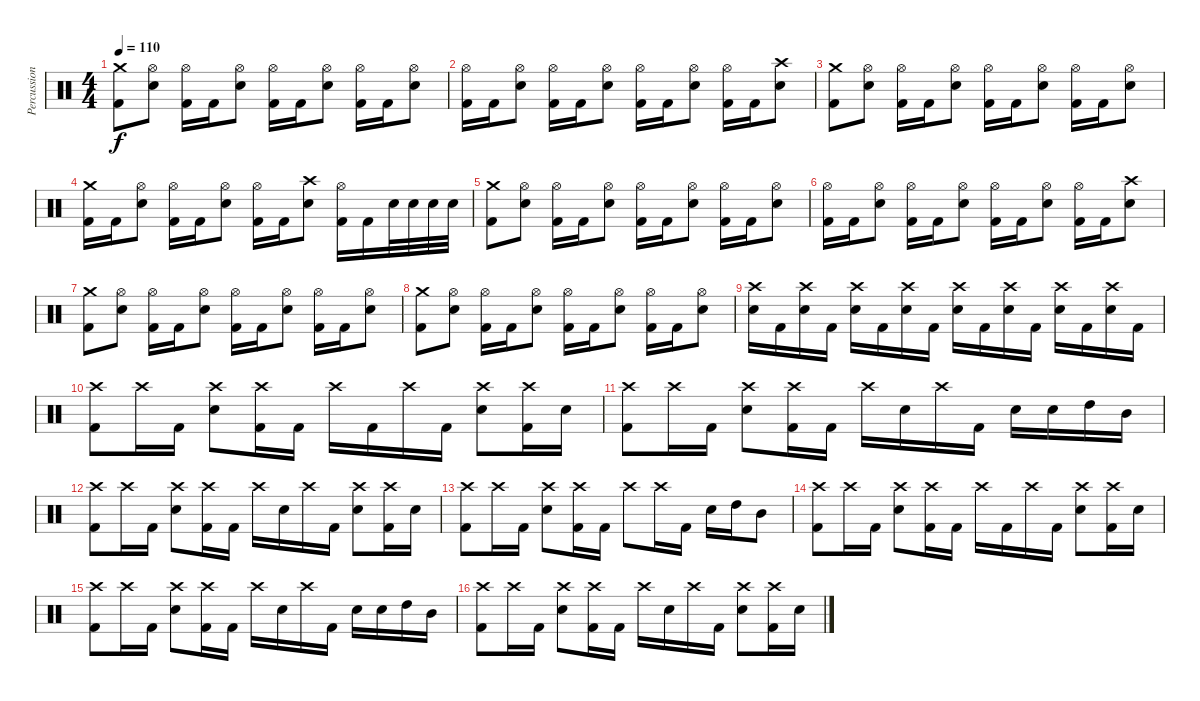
\track ("Percussion" "Percussion") {instrument percussion}
\staff {score}
\articulation defaults
\ts (4 4)
\tempo 110
\clef neutral
\ks c
("Crash medium (hit)" "Kick (hit) 2").8{dy f} ("Hi-Hat (open)" "Snare (hit) 2").8 ("Hi-Hat (open)" "Kick (hit) 2").16 "Kick (hit) 2".16 ("Hi-Hat (open)" "Snare (hit) 2").8 ("Hi-Hat (open)" "Kick (hit) 2").16 "Kick (hit) 2".16 ("Hi-Hat (open)" "Snare (hit) 2").8 ("Hi-Hat (open)" "Kick (hit) 2").16 "Kick (hit) 2".16 ("Hi-Hat (open)" "Snare (hit) 2").8 |
("Hi-Hat (open)" "Kick (hit) 2").16 "Kick (hit) 2".16 ("Hi-Hat (open)" "Snare (hit) 2").8 ("Hi-Hat (open)" "Kick (hit) 2").16 "Kick (hit) 2".16 ("Hi-Hat (open)" "Snare (hit) 2").8 ("Hi-Hat (open)" "Kick (hit) 2").16 "Kick (hit) 2".16 ("Hi-Hat (open)" "Snare (hit) 2").8 ("Hi-Hat (open)" "Kick (hit) 2").16 "Kick (hit) 2".16 ("Crash high (hit)" "Snare (hit) 2").8 |
("Crash medium (hit)" "Kick (hit) 2").8 ("Hi-Hat (open)" "Snare (hit) 2").8 ("Hi-Hat (open)" "Kick (hit) 2").16 "Kick (hit) 2".16 ("Hi-Hat (open)" "Snare (hit) 2").8 ("Hi-Hat (open)" "Kick (hit) 2").16 "Kick (hit) 2".16 ("Hi-Hat (open)" "Snare (hit) 2").8 ("Hi-Hat (open)" "Kick (hit) 2").16 "Kick (hit) 2".16 ("Hi-Hat (open)" "Snare (hit) 2").8 |
("Crash medium (hit)" "Kick (hit) 2").16 "Kick (hit) 2".16 ("Hi-Hat (open)" "Snare (hit) 2").8 ("Hi-Hat (open)" "Kick (hit) 2").16 "Kick (hit) 2".16 ("Hi-Hat (open)" "Snare (hit) 2").8 ("Hi-Hat (open)" "Kick (hit) 2").16 "Kick (hit) 2".16 ("Crash high (hit)" "Snare (hit) 2").8 ("Hi-Hat (open)" "Kick (hit) 2").16 "Kick (hit) 2".16 "Snare (hit) 2".32 "Snare (hit) 2".32 "Snare (hit) 2".32 "Snare (hit) 2".32 |
("Crash medium (hit)" "Kick (hit) 2").8 ("Hi-Hat (open)" "Snare (hit) 2").8 ("Hi-Hat (open)" "Kick (hit) 2").16 "Kick (hit) 2".16 ("Hi-Hat (open)" "Snare (hit) 2").8 ("Hi-Hat (open)" "Kick (hit) 2").16 "Kick (hit) 2".16 ("Hi-Hat (open)" "Snare (hit) 2").8 ("Hi-Hat (open)" "Kick (hit) 2").16 "Kick (hit) 2".16 ("Hi-Hat (open)" "Snare (hit) 2").8 |
("Hi-Hat (open)" "Kick (hit) 2").16 "Kick (hit) 2".16 ("Hi-Hat (open)" "Snare (hit) 2").8 ("Hi-Hat (open)" "Kick (hit) 2").16 "Kick (hit) 2".16 ("Hi-Hat (open)" "Snare (hit) 2").8 ("Hi-Hat (open)" "Kick (hit) 2").16 "Kick (hit) 2".16 ("Hi-Hat (open)" "Snare (hit) 2").8 ("Hi-Hat (open)" "Kick (hit) 2").16 "Kick (hit) 2".16 ("Crash high (hit)" "Snare (hit) 2").8 |
("Crash medium (hit)" "Kick (hit) 2").8 ("Hi-Hat (open)" "Snare (hit) 2").8 ("Hi-Hat (open)" "Kick (hit) 2").16 "Kick (hit) 2".16 ("Hi-Hat (open)" "Snare (hit) 2").8 ("Hi-Hat (open)" "Kick (hit) 2").16 "Kick (hit) 2".16 ("Hi-Hat (open)" "Snare (hit) 2").8 ("Hi-Hat (open)" "Kick (hit) 2").16 "Kick (hit) 2".16 ("Hi-Hat (open)" "Snare (hit) 2").8 |
("Crash medium (hit)" "Kick (hit) 2").8 ("Hi-Hat (open)" "Snare (hit) 2").8 ("Hi-Hat (open)" "Kick (hit) 2").16 "Kick (hit) 2".16 ("Hi-Hat (open)" "Snare (hit) 2").8 ("Hi-Hat (open)" "Kick (hit) 2").16 "Kick (hit) 2".16 ("Hi-Hat (open)" "Snare (hit) 2").8 ("Hi-Hat (open)" "Kick (hit) 2").16 "Kick (hit) 2".16 ("Hi-Hat (open)" "Snare (hit) 2").8 |
("Crash high (hit)" "Snare (hit) 2").16 "Kick (hit) 2".16 ("Crash high (hit)" "Snare (hit) 2").16 "Kick (hit) 2".16 ("Crash high (hit)" "Snare (hit) 2").16 "Kick (hit) 2".16 ("Crash high (hit)" "Snare (hit) 2").16 "Kick (hit) 2".16 ("Crash high (hit)" "Snare (hit) 2").16 "Kick (hit) 2".16 ("Crash high (hit)" "Snare (hit) 2").16 "Kick (hit) 2".16 ("Crash high (hit)" "Snare (hit) 2").16 "Kick (hit) 2".16 ("Crash high (hit)" "Snare (hit) 2").16 "Kick (hit) 2".16 |
("Crash high (hit)" "Kick (hit) 2").8 "Crash high (hit)".16 "Kick (hit) 2".16 ("Crash high (hit)" "Snare (hit) 2").8 ("Crash high (hit)" "Kick (hit) 2").16 "Kick (hit) 2".16 "Crash high (hit)".16 "Kick (hit) 2".16 "Crash high (hit)".16 "Kick (hit) 2".16 ("Crash high (hit)" "Snare (hit) 2").8 ("Crash high (hit)" "Kick (hit) 2").16 "Snare (hit) 2".16 |
("Crash high (hit)" "Kick (hit) 2").8 "Crash high (hit)".16 "Kick (hit) 2".16 ("Crash high (hit)" "Snare (hit) 2").8 ("Crash high (hit)" "Kick (hit) 2").16 "Kick (hit) 2".16 "Crash high (hit)".16 "Snare (hit) 2".16 "Crash high (hit)".16 "Kick (hit) 2".16 "Snare (hit) 2".16 "Snare (hit) 2".16 "High Tom (hit)".16 "Mid Tom (hit)".16 |
("Crash high (hit)" "Kick (hit) 2").8 "Crash high (hit)".16 "Kick (hit) 2".16 ("Crash high (hit)" "Snare (hit) 2").8 ("Crash high (hit)" "Kick (hit) 2").16 "Kick (hit) 2".16 "Crash high (hit)".16 "Snare (hit) 2".16 "Crash high (hit)".16 "Kick (hit) 2".16 ("Crash high (hit)" "Snare (hit) 2").8 ("Crash high (hit)" "Kick (hit) 2").16 "Snare (hit) 2".16 |
("Crash high (hit)" "Kick (hit) 2").8 "Crash high (hit)".16 "Kick (hit) 2".16 ("Crash high (hit)" "Snare (hit) 2").8 ("Crash high (hit)" "Kick (hit) 2").16 "Kick (hit) 2".16 "Crash high (hit)".8 "Crash high (hit)".16 "Kick (hit) 2".16 "Snare (hit) 2".16 "High Tom (hit)".16 "Mid Tom (hit)".8 |
("Crash high (hit)" "Kick (hit) 2").8 "Crash high (hit)".16 "Kick (hit) 2".16 ("Crash high (hit)" "Snare (hit) 2").8 ("Crash high (hit)" "Kick (hit) 2").16 "Kick (hit) 2".16 "Crash high (hit)".16 "Kick (hit) 2".16 "Crash high (hit)".16 "Kick (hit) 2".16 ("Crash high (hit)" "Snare (hit) 2").8 ("Crash high (hit)" "Kick (hit) 2").16 "Snare (hit) 2".16 |
("Crash high (hit)" "Kick (hit) 2").8 "Crash high (hit)".16 "Kick (hit) 2".16 ("Crash high (hit)" "Snare (hit) 2").8 ("Crash high (hit)" "Kick (hit) 2").16 "Kick (hit) 2".16 "Crash high (hit)".16 "Snare (hit) 2".16 "Crash high (hit)".16 "Kick (hit) 2".16 "Snare (hit) 2".16 "Snare (hit) 2".16 "High Tom (hit)".16 "Mid Tom (hit)".16 |
("Crash high (hit)" "Kick (hit) 2").8 "Crash high (hit)".16 "Kick (hit) 2".16 ("Crash high (hit)" "Snare (hit) 2").8 ("Crash high (hit)" "Kick (hit) 2").16 "Kick (hit) 2".16 "Crash high (hit)".16 "Snare (hit) 2".16 "Crash high (hit)".16 "Kick (hit) 2".16 ("Crash high (hit)" "Snare (hit) 2").8 ("Crash high (hit)" "Kick (hit) 2").16 "Snare (hit) 2".16
